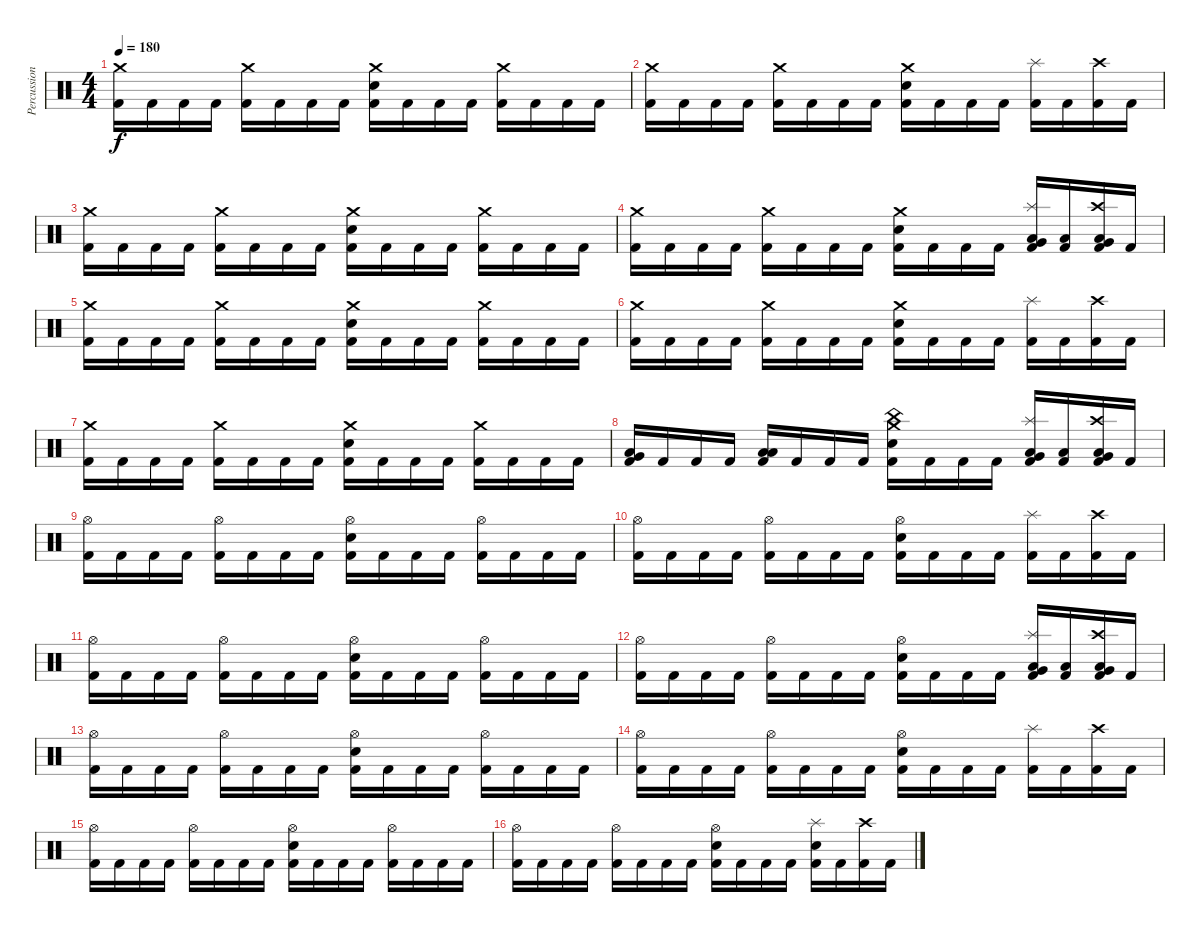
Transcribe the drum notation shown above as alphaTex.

\track ("Percussion" "Percussion") {instrument percussion}
\staff {score}
\articulation defaults
\ts (4 4)
\tempo 180
\clef neutral
\ks c
("Crash medium (hit)" "Kick (hit) 2").16{dy f} "Kick (hit) 2".16 "Kick (hit) 2".16 "Kick (hit) 2".16 ("Crash medium (hit)" "Kick (hit) 2").16 "Kick (hit) 2".16 "Kick (hit) 2".16 "Kick (hit) 2".16 ("Crash medium (hit)" "Electric Snare (hit)" "Kick (hit) 2").16 "Kick (hit) 2".16 "Kick (hit) 2".16 "Kick (hit) 2".16 ("Crash medium (hit)" "Kick (hit) 2").16 "Kick (hit) 2".16 "Kick (hit) 2".16 "Kick (hit) 2".16 |
("Crash medium (hit)" "Kick (hit) 2").16 "Kick (hit) 2".16 "Kick (hit) 2".16 "Kick (hit) 2".16 ("Crash medium (hit)" "Kick (hit) 2").16 "Kick (hit) 2".16 "Kick (hit) 2".16 "Kick (hit) 2".16 ("Crash medium (hit)" "Electric Snare (hit)" "Kick (hit) 2").16 "Kick (hit) 2".16 "Kick (hit) 2".16 "Kick (hit) 2".16 ("Splash (hit)" "Kick (hit) 2").16 "Kick (hit) 2".16 ("Crash high (hit)" "Kick (hit) 2").16 "Kick (hit) 2".16 |
("Crash medium (hit)" "Kick (hit) 2").16 "Kick (hit) 2".16 "Kick (hit) 2".16 "Kick (hit) 2".16 ("Crash medium (hit)" "Kick (hit) 2").16 "Kick (hit) 2".16 "Kick (hit) 2".16 "Kick (hit) 2".16 ("Crash medium (hit)" "Electric Snare (hit)" "Kick (hit) 2").16 "Kick (hit) 2".16 "Kick (hit) 2".16 "Kick (hit) 2".16 ("Crash medium (hit)" "Kick (hit) 2").16 "Kick (hit) 2".16 "Kick (hit) 2".16 "Kick (hit) 2".16 |
("Crash medium (hit)" "Kick (hit) 2").16 "Kick (hit) 2".16 "Kick (hit) 2".16 "Kick (hit) 2".16 ("Crash medium (hit)" "Kick (hit) 2").16 "Kick (hit) 2".16 "Kick (hit) 2".16 "Kick (hit) 2".16 ("Crash medium (hit)" "Electric Snare (hit)" "Kick (hit) 2").16 "Kick (hit) 2".16 "Kick (hit) 2".16 "Kick (hit) 2".16 ("Splash (hit)" "Low Floor Tom (hit)" "Very Low Tom (hit)" "Kick (hit) 2").16 ("Low Tom (hit)" "Kick (hit) 2").16 ("Crash high (hit)" "Low Floor Tom (hit)" "Very Low Tom (hit)" "Kick (hit) 2").16 "Kick (hit) 2".16 |
("Crash medium (hit)" "Kick (hit) 2").16 "Kick (hit) 2".16 "Kick (hit) 2".16 "Kick (hit) 2".16 ("Crash medium (hit)" "Kick (hit) 2").16 "Kick (hit) 2".16 "Kick (hit) 2".16 "Kick (hit) 2".16 ("Crash medium (hit)" "Electric Snare (hit)" "Kick (hit) 2").16 "Kick (hit) 2".16 "Kick (hit) 2".16 "Kick (hit) 2".16 ("Crash medium (hit)" "Kick (hit) 2").16 "Kick (hit) 2".16 "Kick (hit) 2".16 "Kick (hit) 2".16 |
("Crash medium (hit)" "Kick (hit) 2").16 "Kick (hit) 2".16 "Kick (hit) 2".16 "Kick (hit) 2".16 ("Crash medium (hit)" "Kick (hit) 2").16 "Kick (hit) 2".16 "Kick (hit) 2".16 "Kick (hit) 2".16 ("Crash medium (hit)" "Electric Snare (hit)" "Kick (hit) 2").16 "Kick (hit) 2".16 "Kick (hit) 2".16 "Kick (hit) 2".16 ("Splash (hit)" "Kick (hit) 2").16 "Kick (hit) 2".16 ("Crash high (hit)" "Kick (hit) 2").16 "Kick (hit) 2".16 |
("Crash medium (hit)" "Kick (hit) 2").16 "Kick (hit) 2".16 "Kick (hit) 2".16 "Kick (hit) 2".16 ("Crash medium (hit)" "Kick (hit) 2").16 "Kick (hit) 2".16 "Kick (hit) 2".16 "Kick (hit) 2".16 ("Crash medium (hit)" "Electric Snare (hit)" "Kick (hit) 2").16 "Kick (hit) 2".16 "Kick (hit) 2".16 "Kick (hit) 2".16 ("Crash medium (hit)" "Kick (hit) 2").16 "Kick (hit) 2".16 "Kick (hit) 2".16 "Kick (hit) 2".16 |
("Very Low Tom (hit)" "Low Floor Tom (hit)" "Kick (hit) 2").16 "Kick (hit) 2".16 "Kick (hit) 2".16 "Kick (hit) 2".16 ("Low Tom (hit)" "Low Floor Tom (hit)" "Kick (hit) 2").16 "Kick (hit) 2".16 "Kick (hit) 2".16 "Kick (hit) 2".16 ("Crash medium (hit)" "China (hit)" "Electric Snare (hit)" "Kick (hit) 2").16 "Kick (hit) 2".16 "Kick (hit) 2".16 "Kick (hit) 2".16 ("Splash (hit)" "Low Floor Tom (hit)" "Very Low Tom (hit)" "Kick (hit) 2").16 ("Low Tom (hit)" "Kick (hit) 2").16 ("Crash high (hit)" "Low Floor Tom (hit)" "Very Low Tom (hit)" "Kick (hit) 2").16 "Kick (hit) 2".16 |
("Hi-Hat (open)" "Kick (hit) 2").16 "Kick (hit) 2".16 "Kick (hit) 2".16 "Kick (hit) 2".16 ("Hi-Hat (open)" "Kick (hit) 2").16 "Kick (hit) 2".16 "Kick (hit) 2".16 "Kick (hit) 2".16 ("Hi-Hat (open)" "Electric Snare (hit)" "Kick (hit) 2").16 "Kick (hit) 2".16 "Kick (hit) 2".16 "Kick (hit) 2".16 ("Hi-Hat (open)" "Kick (hit) 2").16 "Kick (hit) 2".16 "Kick (hit) 2".16 "Kick (hit) 2".16 |
("Hi-Hat (open)" "Kick (hit) 2").16 "Kick (hit) 2".16 "Kick (hit) 2".16 "Kick (hit) 2".16 ("Hi-Hat (open)" "Kick (hit) 2").16 "Kick (hit) 2".16 "Kick (hit) 2".16 "Kick (hit) 2".16 ("Hi-Hat (open)" "Electric Snare (hit)" "Kick (hit) 2").16 "Kick (hit) 2".16 "Kick (hit) 2".16 "Kick (hit) 2".16 ("Splash (hit)" "Kick (hit) 2").16 "Kick (hit) 2".16 ("Crash high (hit)" "Kick (hit) 2").16 "Kick (hit) 2".16 |
("Hi-Hat (open)" "Kick (hit) 2").16 "Kick (hit) 2".16 "Kick (hit) 2".16 "Kick (hit) 2".16 ("Hi-Hat (open)" "Kick (hit) 2").16 "Kick (hit) 2".16 "Kick (hit) 2".16 "Kick (hit) 2".16 ("Hi-Hat (open)" "Electric Snare (hit)" "Kick (hit) 2").16 "Kick (hit) 2".16 "Kick (hit) 2".16 "Kick (hit) 2".16 ("Hi-Hat (open)" "Kick (hit) 2").16 "Kick (hit) 2".16 "Kick (hit) 2".16 "Kick (hit) 2".16 |
("Hi-Hat (open)" "Kick (hit) 2").16 "Kick (hit) 2".16 "Kick (hit) 2".16 "Kick (hit) 2".16 ("Hi-Hat (open)" "Kick (hit) 2").16 "Kick (hit) 2".16 "Kick (hit) 2".16 "Kick (hit) 2".16 ("Hi-Hat (open)" "Electric Snare (hit)" "Kick (hit) 2").16 "Kick (hit) 2".16 "Kick (hit) 2".16 "Kick (hit) 2".16 ("Splash (hit)" "Low Floor Tom (hit)" "Very Low Tom (hit)" "Kick (hit) 2").16 ("Low Tom (hit)" "Kick (hit) 2").16 ("Crash high (hit)" "Low Floor Tom (hit)" "Very Low Tom (hit)" "Kick (hit) 2").16 "Kick (hit) 2".16 |
("Hi-Hat (open)" "Kick (hit) 2").16 "Kick (hit) 2".16 "Kick (hit) 2".16 "Kick (hit) 2".16 ("Hi-Hat (open)" "Kick (hit) 2").16 "Kick (hit) 2".16 "Kick (hit) 2".16 "Kick (hit) 2".16 ("Hi-Hat (open)" "Electric Snare (hit)" "Kick (hit) 2").16 "Kick (hit) 2".16 "Kick (hit) 2".16 "Kick (hit) 2".16 ("Hi-Hat (open)" "Kick (hit) 2").16 "Kick (hit) 2".16 "Kick (hit) 2".16 "Kick (hit) 2".16 |
("Hi-Hat (open)" "Kick (hit) 2").16 "Kick (hit) 2".16 "Kick (hit) 2".16 "Kick (hit) 2".16 ("Hi-Hat (open)" "Kick (hit) 2").16 "Kick (hit) 2".16 "Kick (hit) 2".16 "Kick (hit) 2".16 ("Hi-Hat (open)" "Electric Snare (hit)" "Kick (hit) 2").16 "Kick (hit) 2".16 "Kick (hit) 2".16 "Kick (hit) 2".16 ("Splash (hit)" "Kick (hit) 2").16 "Kick (hit) 2".16 ("Crash high (hit)" "Kick (hit) 2").16 "Kick (hit) 2".16 |
("Hi-Hat (open)" "Kick (hit) 2").16 "Kick (hit) 2".16 "Kick (hit) 2".16 "Kick (hit) 2".16 ("Hi-Hat (open)" "Kick (hit) 2").16 "Kick (hit) 2".16 "Kick (hit) 2".16 "Kick (hit) 2".16 ("Hi-Hat (open)" "Electric Snare (hit)" "Kick (hit) 2").16 "Kick (hit) 2".16 "Kick (hit) 2".16 "Kick (hit) 2".16 ("Hi-Hat (open)" "Kick (hit) 2").16 "Kick (hit) 2".16 "Kick (hit) 2".16 "Kick (hit) 2".16 |
("Hi-Hat (open)" "Kick (hit) 2").16 "Kick (hit) 2".16 "Kick (hit) 2".16 "Kick (hit) 2".16 ("Hi-Hat (open)" "Kick (hit) 2").16 "Kick (hit) 2".16 "Kick (hit) 2".16 "Kick (hit) 2".16 ("Hi-Hat (open)" "Electric Snare (hit)" "Kick (hit) 2").16 "Kick (hit) 2".16 "Kick (hit) 2".16 "Kick (hit) 2".16 ("Splash (hit)" "Electric Snare (hit)" "Kick (hit) 2").16 "Kick (hit) 2".16 ("Crash high (hit)" "Kick (hit) 2").16 "Kick (hit) 2".16
